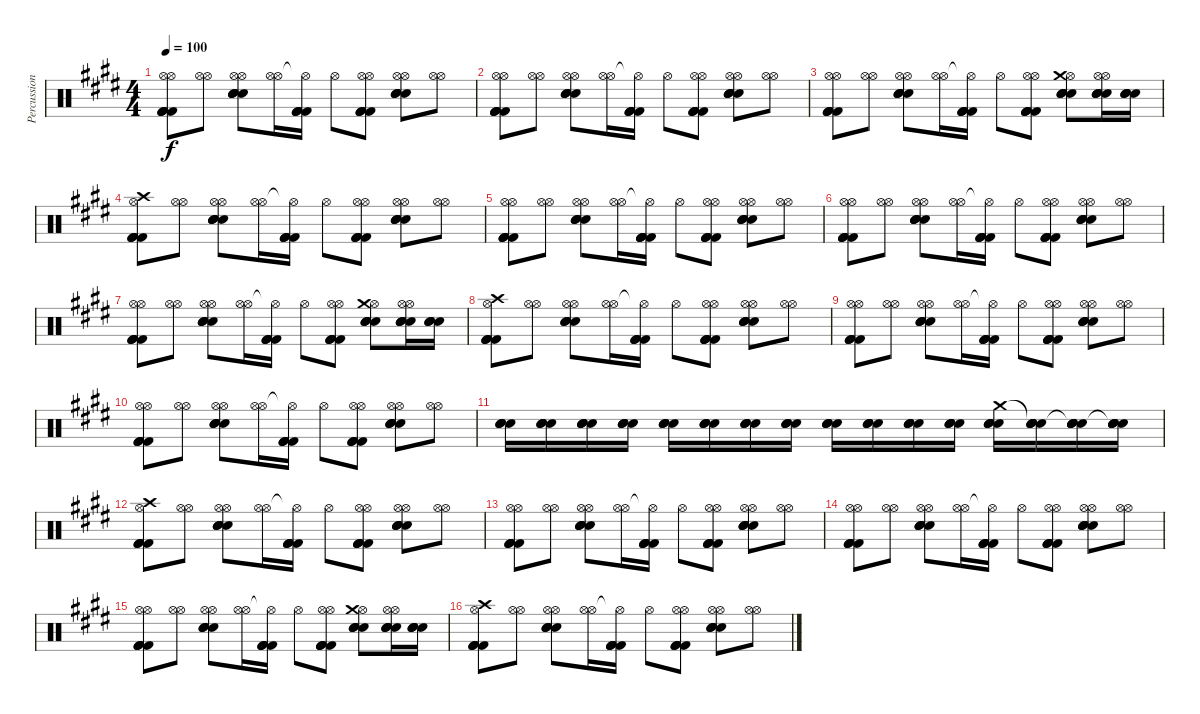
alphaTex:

\track ("Percussion" "Percussion") {instrument percussion}
\staff {score}
\articulation defaults
\ts (4 4)
\tempo 100
\clef neutral
\ks e
("Hi-Hat (open)" "Kick (hit) 2" "Kick (hit) 2" "Kick (hit) 2" "Kick (hit) 2" "Hi-Hat (open)").8{dy f} ("Hi-Hat (open)" "Hi-Hat (open)").8 ("Hi-Hat (open)" "Electric Snare (hit)" "Electric Snare (hit)" "Electric Snare (hit)" "Electric Snare (hit)" "Hi-Hat (open)").8 ("Hi-Hat (open)" "Hi-Hat (open)").16 ("Hi-Hat (open)"{t} "Kick (hit) 2" "Kick (hit) 2" "Kick (hit) 2" "Kick (hit) 2").16 "Hi-Hat (open)".8 ("Hi-Hat (open)" "Kick (hit) 2" "Kick (hit) 2" "Kick (hit) 2" "Kick (hit) 2" "Hi-Hat (open)").8 ("Hi-Hat (open)" "Electric Snare (hit)" "Electric Snare (hit)" "Electric Snare (hit)" "Electric Snare (hit)" "Hi-Hat (open)").8 ("Hi-Hat (open)" "Hi-Hat (open)").8 |
("Hi-Hat (open)" "Kick (hit) 2" "Kick (hit) 2" "Kick (hit) 2" "Kick (hit) 2" "Hi-Hat (open)").8 ("Hi-Hat (open)" "Hi-Hat (open)").8 ("Hi-Hat (open)" "Electric Snare (hit)" "Electric Snare (hit)" "Electric Snare (hit)" "Electric Snare (hit)" "Hi-Hat (open)").8 ("Hi-Hat (open)" "Hi-Hat (open)").16 ("Hi-Hat (open)"{t} "Kick (hit) 2" "Kick (hit) 2" "Kick (hit) 2" "Kick (hit) 2").16 "Hi-Hat (open)".8 ("Hi-Hat (open)" "Kick (hit) 2" "Kick (hit) 2" "Kick (hit) 2" "Kick (hit) 2" "Hi-Hat (open)").8 ("Hi-Hat (open)" "Electric Snare (hit)" "Electric Snare (hit)" "Electric Snare (hit)" "Electric Snare (hit)" "Hi-Hat (open)").8 ("Hi-Hat (open)" "Hi-Hat (open)").8 |
("Hi-Hat (open)" "Kick (hit) 2" "Kick (hit) 2" "Kick (hit) 2" "Kick (hit) 2" "Hi-Hat (open)").8 ("Hi-Hat (open)" "Hi-Hat (open)").8 ("Hi-Hat (open)" "Electric Snare (hit)" "Electric Snare (hit)" "Electric Snare (hit)" "Electric Snare (hit)" "Hi-Hat (open)").8 ("Hi-Hat (open)" "Hi-Hat (open)").16 ("Hi-Hat (open)"{t} "Kick (hit) 2" "Kick (hit) 2" "Kick (hit) 2" "Kick (hit) 2").16 "Hi-Hat (open)".8 ("Hi-Hat (open)" "Kick (hit) 2" "Kick (hit) 2" "Kick (hit) 2" "Kick (hit) 2" "Hi-Hat (open)").8 ("Hi-Hat (open)" "Electric Snare (hit)" "Electric Snare (hit)" "Electric Snare (hit)" "Electric Snare (hit)" "Crash medium (hit)").8 ("Hi-Hat (open)" "Electric Snare (hit)" "Electric Snare (hit)" "Electric Snare (hit)" "Electric Snare (hit)" "Hi-Hat (open)").16 ("Electric Snare (hit)" "Electric Snare (hit)" "Electric Snare (hit)" "Electric Snare (hit)").16 |
("Hi-Hat (open)" "Kick (hit) 2" "Kick (hit) 2" "Kick (hit) 2" "Kick (hit) 2" "Crash high (hit)").8 ("Hi-Hat (open)" "Hi-Hat (open)").8 ("Hi-Hat (open)" "Electric Snare (hit)" "Electric Snare (hit)" "Electric Snare (hit)" "Electric Snare (hit)" "Hi-Hat (open)").8 ("Hi-Hat (open)" "Hi-Hat (open)").16 ("Hi-Hat (open)"{t} "Kick (hit) 2" "Kick (hit) 2" "Kick (hit) 2" "Kick (hit) 2").16 "Hi-Hat (open)".8 ("Hi-Hat (open)" "Kick (hit) 2" "Kick (hit) 2" "Kick (hit) 2" "Kick (hit) 2" "Hi-Hat (open)").8 ("Hi-Hat (open)" "Electric Snare (hit)" "Electric Snare (hit)" "Electric Snare (hit)" "Electric Snare (hit)" "Hi-Hat (open)").8 ("Hi-Hat (open)" "Hi-Hat (open)").8 |
("Hi-Hat (open)" "Kick (hit) 2" "Kick (hit) 2" "Kick (hit) 2" "Kick (hit) 2" "Hi-Hat (open)").8 ("Hi-Hat (open)" "Hi-Hat (open)").8 ("Hi-Hat (open)" "Electric Snare (hit)" "Electric Snare (hit)" "Electric Snare (hit)" "Electric Snare (hit)" "Hi-Hat (open)").8 ("Hi-Hat (open)" "Hi-Hat (open)").16 ("Hi-Hat (open)"{t} "Kick (hit) 2" "Kick (hit) 2" "Kick (hit) 2" "Kick (hit) 2").16 "Hi-Hat (open)".8 ("Hi-Hat (open)" "Kick (hit) 2" "Kick (hit) 2" "Kick (hit) 2" "Kick (hit) 2" "Hi-Hat (open)").8 ("Hi-Hat (open)" "Electric Snare (hit)" "Electric Snare (hit)" "Electric Snare (hit)" "Electric Snare (hit)" "Hi-Hat (open)").8 ("Hi-Hat (open)" "Hi-Hat (open)").8 |
("Hi-Hat (open)" "Kick (hit) 2" "Kick (hit) 2" "Kick (hit) 2" "Kick (hit) 2" "Hi-Hat (open)").8 ("Hi-Hat (open)" "Hi-Hat (open)").8 ("Hi-Hat (open)" "Electric Snare (hit)" "Electric Snare (hit)" "Electric Snare (hit)" "Electric Snare (hit)" "Hi-Hat (open)").8 ("Hi-Hat (open)" "Hi-Hat (open)").16 ("Hi-Hat (open)"{t} "Kick (hit) 2" "Kick (hit) 2" "Kick (hit) 2" "Kick (hit) 2").16 "Hi-Hat (open)".8 ("Hi-Hat (open)" "Kick (hit) 2" "Kick (hit) 2" "Kick (hit) 2" "Kick (hit) 2" "Hi-Hat (open)").8 ("Hi-Hat (open)" "Electric Snare (hit)" "Electric Snare (hit)" "Electric Snare (hit)" "Electric Snare (hit)" "Hi-Hat (open)").8 ("Hi-Hat (open)" "Hi-Hat (open)").8 |
("Hi-Hat (open)" "Kick (hit) 2" "Kick (hit) 2" "Kick (hit) 2" "Kick (hit) 2" "Hi-Hat (open)").8 ("Hi-Hat (open)" "Hi-Hat (open)").8 ("Hi-Hat (open)" "Electric Snare (hit)" "Electric Snare (hit)" "Electric Snare (hit)" "Electric Snare (hit)" "Hi-Hat (open)").8 ("Hi-Hat (open)" "Hi-Hat (open)").16 ("Hi-Hat (open)"{t} "Kick (hit) 2" "Kick (hit) 2" "Kick (hit) 2" "Kick (hit) 2").16 "Hi-Hat (open)".8 ("Hi-Hat (open)" "Kick (hit) 2" "Kick (hit) 2" "Kick (hit) 2" "Kick (hit) 2" "Hi-Hat (open)").8 ("Hi-Hat (open)" "Electric Snare (hit)" "Electric Snare (hit)" "Electric Snare (hit)" "Electric Snare (hit)" "Crash medium (hit)").8 ("Hi-Hat (open)" "Electric Snare (hit)" "Electric Snare (hit)" "Electric Snare (hit)" "Electric Snare (hit)" "Hi-Hat (open)").16 ("Electric Snare (hit)" "Electric Snare (hit)" "Electric Snare (hit)" "Electric Snare (hit)").16 |
("Hi-Hat (open)" "Kick (hit) 2" "Kick (hit) 2" "Kick (hit) 2" "Kick (hit) 2" "Crash high (hit)").8 ("Hi-Hat (open)" "Hi-Hat (open)").8 ("Hi-Hat (open)" "Electric Snare (hit)" "Electric Snare (hit)" "Electric Snare (hit)" "Electric Snare (hit)" "Hi-Hat (open)").8 ("Hi-Hat (open)" "Hi-Hat (open)").16 ("Hi-Hat (open)"{t} "Kick (hit) 2" "Kick (hit) 2" "Kick (hit) 2" "Kick (hit) 2").16 "Hi-Hat (open)".8 ("Hi-Hat (open)" "Kick (hit) 2" "Kick (hit) 2" "Kick (hit) 2" "Kick (hit) 2" "Hi-Hat (open)").8 ("Hi-Hat (open)" "Electric Snare (hit)" "Electric Snare (hit)" "Electric Snare (hit)" "Electric Snare (hit)" "Hi-Hat (open)").8 ("Hi-Hat (open)" "Hi-Hat (open)").8 |
("Hi-Hat (open)" "Kick (hit) 2" "Kick (hit) 2" "Kick (hit) 2" "Kick (hit) 2" "Hi-Hat (open)").8 ("Hi-Hat (open)" "Hi-Hat (open)").8 ("Hi-Hat (open)" "Electric Snare (hit)" "Electric Snare (hit)" "Electric Snare (hit)" "Electric Snare (hit)" "Hi-Hat (open)").8 ("Hi-Hat (open)" "Hi-Hat (open)").16 ("Hi-Hat (open)"{t} "Kick (hit) 2" "Kick (hit) 2" "Kick (hit) 2" "Kick (hit) 2").16 "Hi-Hat (open)".8 ("Hi-Hat (open)" "Kick (hit) 2" "Kick (hit) 2" "Kick (hit) 2" "Kick (hit) 2" "Hi-Hat (open)").8 ("Hi-Hat (open)" "Electric Snare (hit)" "Electric Snare (hit)" "Electric Snare (hit)" "Electric Snare (hit)" "Hi-Hat (open)").8 ("Hi-Hat (open)" "Hi-Hat (open)").8 |
("Hi-Hat (open)" "Kick (hit) 2" "Kick (hit) 2" "Kick (hit) 2" "Kick (hit) 2" "Hi-Hat (open)").8 ("Hi-Hat (open)" "Hi-Hat (open)").8 ("Hi-Hat (open)" "Electric Snare (hit)" "Electric Snare (hit)" "Electric Snare (hit)" "Electric Snare (hit)" "Hi-Hat (open)").8 ("Hi-Hat (open)" "Hi-Hat (open)").16 ("Hi-Hat (open)"{t} "Kick (hit) 2" "Kick (hit) 2" "Kick (hit) 2" "Kick (hit) 2").16 "Hi-Hat (open)".8 ("Hi-Hat (open)" "Kick (hit) 2" "Kick (hit) 2" "Kick (hit) 2" "Kick (hit) 2" "Hi-Hat (open)").8 ("Hi-Hat (open)" "Electric Snare (hit)" "Electric Snare (hit)" "Electric Snare (hit)" "Electric Snare (hit)" "Hi-Hat (open)").8 ("Hi-Hat (open)" "Hi-Hat (open)").8 |
("Electric Snare (hit)" "Electric Snare (hit)" "Electric Snare (hit)" "Electric Snare (hit)").16 ("Electric Snare (hit)" "Electric Snare (hit)" "Electric Snare (hit)" "Electric Snare (hit)").16 ("Electric Snare (hit)" "Electric Snare (hit)" "Electric Snare (hit)" "Electric Snare (hit)").16 ("Electric Snare (hit)" "Electric Snare (hit)" "Electric Snare (hit)" "Electric Snare (hit)").16 ("Electric Snare (hit)" "Electric Snare (hit)" "Electric Snare (hit)" "Electric Snare (hit)").16 ("Electric Snare (hit)" "Electric Snare (hit)" "Electric Snare (hit)" "Electric Snare (hit)").16 ("Electric Snare (hit)" "Electric Snare (hit)" "Electric Snare (hit)" "Electric Snare (hit)").16 ("Electric Snare (hit)" "Electric Snare (hit)" "Electric Snare (hit)" "Electric Snare (hit)").16 ("Electric Snare (hit)" "Electric Snare (hit)" "Electric Snare (hit)" "Electric Snare (hit)").16 ("Electric Snare (hit)" "Electric Snare (hit)" "Electric Snare (hit)" "Electric Snare (hit)").16 ("Electric Snare (hit)" "Electric Snare (hit)" "Electric Snare (hit)" "Electric Snare (hit)").16 ("Electric Snare (hit)" "Electric Snare (hit)" "Electric Snare (hit)" "Electric Snare (hit)").16 ("Electric Snare (hit)" "Electric Snare (hit)" "Electric Snare (hit)" "Electric Snare (hit)" "Crash medium (hit)").16 ("Electric Snare (hit)" "Electric Snare (hit)" "Electric Snare (hit)" "Electric Snare (hit)" "Snare (hit)"{t}).16 ("Electric Snare (hit)" "Electric Snare (hit)" "Electric Snare (hit)" "Electric Snare (hit)" "Snare (hit)"{t}).16 ("Electric Snare (hit)" "Electric Snare (hit)" "Electric Snare (hit)" "Electric Snare (hit)" "Snare (hit)"{t}).16 |
("Hi-Hat (open)" "Kick (hit) 2" "Kick (hit) 2" "Kick (hit) 2" "Kick (hit) 2" "Crash high (hit)").8 ("Hi-Hat (open)" "Hi-Hat (open)").8 ("Hi-Hat (open)" "Electric Snare (hit)" "Electric Snare (hit)" "Electric Snare (hit)" "Electric Snare (hit)" "Hi-Hat (open)").8 ("Hi-Hat (open)" "Hi-Hat (open)").16 ("Hi-Hat (open)"{t} "Kick (hit) 2" "Kick (hit) 2" "Kick (hit) 2" "Kick (hit) 2").16 "Hi-Hat (open)".8 ("Hi-Hat (open)" "Kick (hit) 2" "Kick (hit) 2" "Kick (hit) 2" "Kick (hit) 2" "Hi-Hat (open)").8 ("Hi-Hat (open)" "Electric Snare (hit)" "Electric Snare (hit)" "Electric Snare (hit)" "Electric Snare (hit)" "Hi-Hat (open)").8 ("Hi-Hat (open)" "Hi-Hat (open)").8 |
("Hi-Hat (open)" "Kick (hit) 2" "Kick (hit) 2" "Kick (hit) 2" "Kick (hit) 2" "Hi-Hat (open)").8 ("Hi-Hat (open)" "Hi-Hat (open)").8 ("Hi-Hat (open)" "Electric Snare (hit)" "Electric Snare (hit)" "Electric Snare (hit)" "Electric Snare (hit)" "Hi-Hat (open)").8 ("Hi-Hat (open)" "Hi-Hat (open)").16 ("Hi-Hat (open)"{t} "Kick (hit) 2" "Kick (hit) 2" "Kick (hit) 2" "Kick (hit) 2").16 "Hi-Hat (open)".8 ("Hi-Hat (open)" "Kick (hit) 2" "Kick (hit) 2" "Kick (hit) 2" "Kick (hit) 2" "Hi-Hat (open)").8 ("Hi-Hat (open)" "Electric Snare (hit)" "Electric Snare (hit)" "Electric Snare (hit)" "Electric Snare (hit)" "Hi-Hat (open)").8 ("Hi-Hat (open)" "Hi-Hat (open)").8 |
("Hi-Hat (open)" "Kick (hit) 2" "Kick (hit) 2" "Kick (hit) 2" "Kick (hit) 2" "Hi-Hat (open)").8 ("Hi-Hat (open)" "Hi-Hat (open)").8 ("Hi-Hat (open)" "Electric Snare (hit)" "Electric Snare (hit)" "Electric Snare (hit)" "Electric Snare (hit)" "Hi-Hat (open)").8 ("Hi-Hat (open)" "Hi-Hat (open)").16 ("Hi-Hat (open)"{t} "Kick (hit) 2" "Kick (hit) 2" "Kick (hit) 2" "Kick (hit) 2").16 "Hi-Hat (open)".8 ("Hi-Hat (open)" "Kick (hit) 2" "Kick (hit) 2" "Kick (hit) 2" "Kick (hit) 2" "Hi-Hat (open)").8 ("Hi-Hat (open)" "Electric Snare (hit)" "Electric Snare (hit)" "Electric Snare (hit)" "Electric Snare (hit)" "Hi-Hat (open)").8 ("Hi-Hat (open)" "Hi-Hat (open)").8 |
("Hi-Hat (open)" "Kick (hit) 2" "Kick (hit) 2" "Kick (hit) 2" "Kick (hit) 2" "Hi-Hat (open)").8 ("Hi-Hat (open)" "Hi-Hat (open)").8 ("Hi-Hat (open)" "Electric Snare (hit)" "Electric Snare (hit)" "Electric Snare (hit)" "Electric Snare (hit)" "Hi-Hat (open)").8 ("Hi-Hat (open)" "Hi-Hat (open)").16 ("Hi-Hat (open)"{t} "Kick (hit) 2" "Kick (hit) 2" "Kick (hit) 2" "Kick (hit) 2").16 "Hi-Hat (open)".8 ("Hi-Hat (open)" "Kick (hit) 2" "Kick (hit) 2" "Kick (hit) 2" "Kick (hit) 2" "Hi-Hat (open)").8 ("Hi-Hat (open)" "Electric Snare (hit)" "Electric Snare (hit)" "Electric Snare (hit)" "Electric Snare (hit)" "Crash medium (hit)").8 ("Hi-Hat (open)" "Electric Snare (hit)" "Electric Snare (hit)" "Electric Snare (hit)" "Electric Snare (hit)" "Hi-Hat (open)").16 ("Electric Snare (hit)" "Electric Snare (hit)" "Electric Snare (hit)" "Electric Snare (hit)").16 |
("Hi-Hat (open)" "Kick (hit) 2" "Kick (hit) 2" "Kick (hit) 2" "Kick (hit) 2" "Crash high (hit)").8 ("Hi-Hat (open)" "Hi-Hat (open)").8 ("Hi-Hat (open)" "Electric Snare (hit)" "Electric Snare (hit)" "Electric Snare (hit)" "Electric Snare (hit)" "Hi-Hat (open)").8 ("Hi-Hat (open)" "Hi-Hat (open)").16 ("Hi-Hat (open)"{t} "Kick (hit) 2" "Kick (hit) 2" "Kick (hit) 2" "Kick (hit) 2").16 "Hi-Hat (open)".8 ("Hi-Hat (open)" "Kick (hit) 2" "Kick (hit) 2" "Kick (hit) 2" "Kick (hit) 2" "Hi-Hat (open)").8 ("Hi-Hat (open)" "Electric Snare (hit)" "Electric Snare (hit)" "Electric Snare (hit)" "Electric Snare (hit)" "Hi-Hat (open)").8 ("Hi-Hat (open)" "Hi-Hat (open)").8
